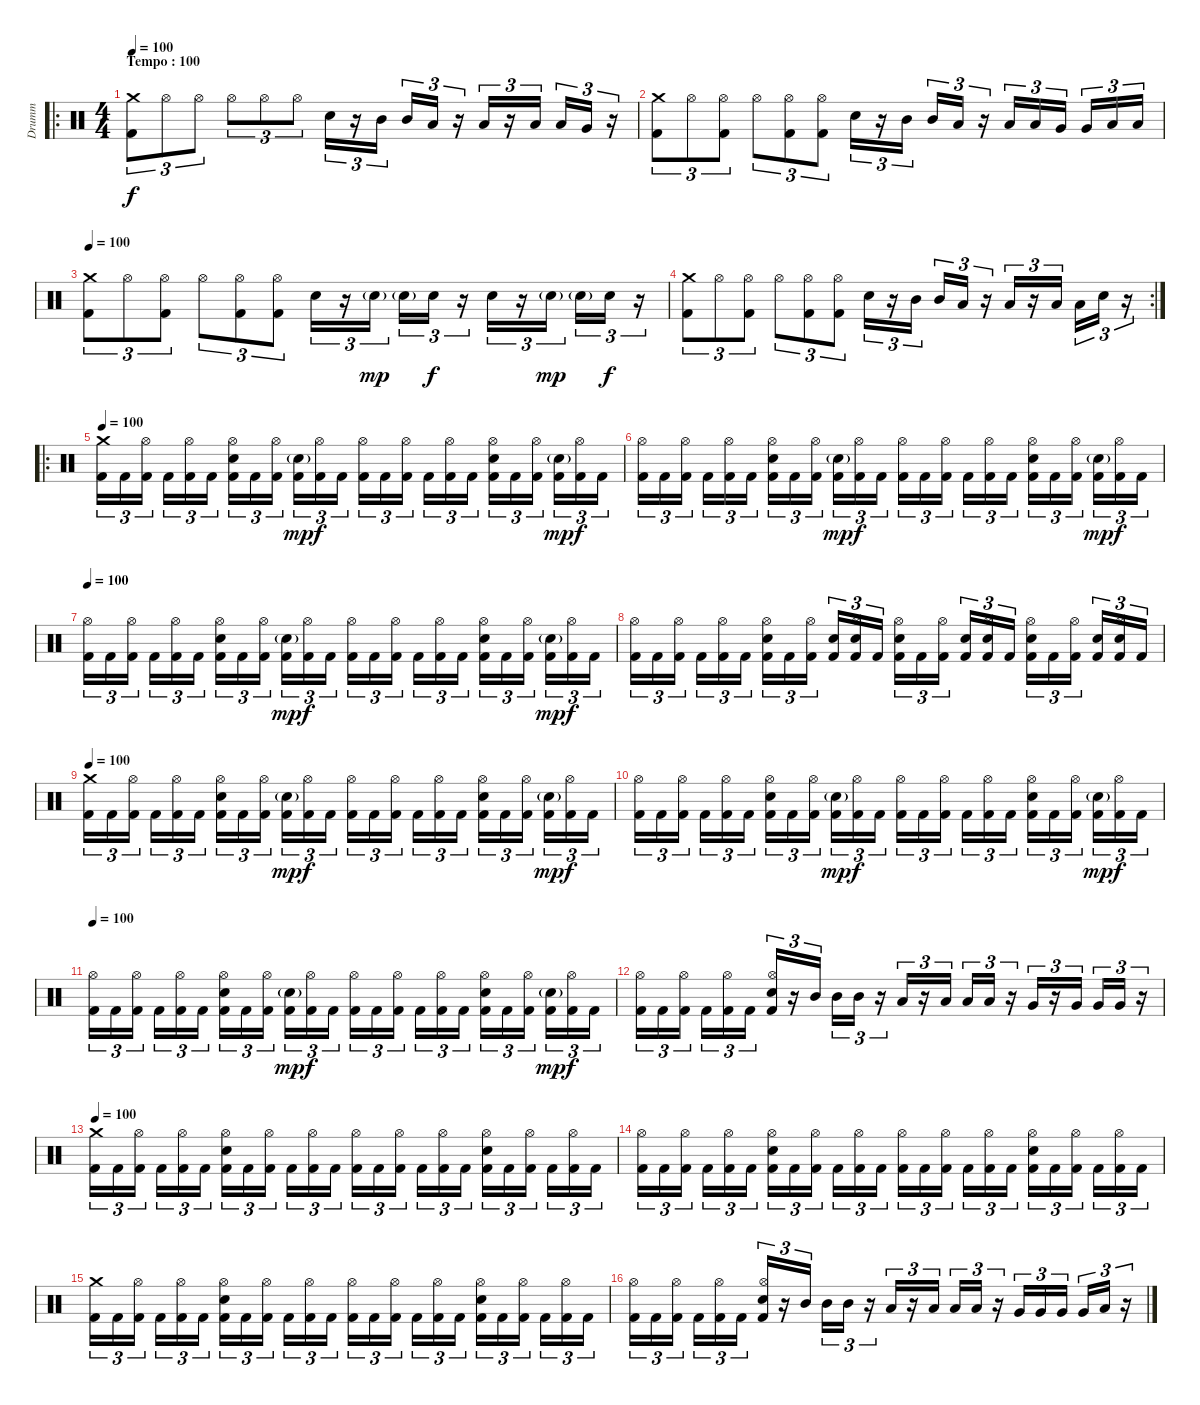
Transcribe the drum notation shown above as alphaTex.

\track ("Drumm" "Drumm") {instrument percussion}
\staff {score}
\articulation defaults
\ro
\ts (4 4)
\section ("" "Tempo : 100")
\tempo 100
\clef neutral
\ks c
("Kick (hit) 2" "Crash medium (hit)").8{tu (3 2) dy f} "Hi-Hat (open)".8{tu (3 2)} "Hi-Hat (open)".8{tu (3 2)} "Hi-Hat (open)".8{tu (3 2)} "Hi-Hat (open)".8{tu (3 2)} "Hi-Hat (open)".8{tu (3 2)} "Electric Snare (hit)".16{tu (3 2)} r.16{tu (3 2)} "Mid Tom (hit)".16{tu (3 2)} "Mid Tom (hit)".16{tu (3 2)} "Low Tom (hit)".16{tu (3 2)} r.16{tu (3 2)} "Low Tom (hit)".16{tu (3 2)} r.16{tu (3 2)} "Low Tom (hit)".16{tu (3 2)} "Low Tom (hit)".16{tu (3 2)} "Very Low Tom (hit)".16{tu (3 2)} r.16{tu (3 2)} |
("Kick (hit) 2" "Crash medium (hit)").8{tu (3 2)} "Hi-Hat (open)".8{tu (3 2)} ("Kick (hit) 2" "Hi-Hat (open)").8{tu (3 2)} "Hi-Hat (open)".8{tu (3 2)} ("Kick (hit) 2" "Hi-Hat (open)").8{tu (3 2)} ("Kick (hit) 2" "Hi-Hat (open)").8{tu (3 2)} "Electric Snare (hit)".16{tu (3 2)} r.16{tu (3 2)} "Mid Tom (hit)".16{tu (3 2)} "Mid Tom (hit)".16{tu (3 2)} "Low Tom (hit)".16{tu (3 2)} r.16{tu (3 2)} "Low Tom (hit)".16{tu (3 2)} "Low Tom (hit)".16{tu (3 2)} "Very Low Tom (hit)".16{tu (3 2)} "Very Low Tom (hit)".16{tu (3 2)} "Low Floor Tom (hit)".16{tu (3 2)} "Low Floor Tom (hit)".16{tu (3 2)} |
\tempo 100
("Kick (hit) 2" "Crash medium (hit)").8{tu (3 2)} "Hi-Hat (open)".8{tu (3 2)} ("Kick (hit) 2" "Hi-Hat (open)").8{tu (3 2)} "Hi-Hat (open)".8{tu (3 2)} ("Kick (hit) 2" "Hi-Hat (open)").8{tu (3 2)} ("Kick (hit) 2" "Hi-Hat (open)").8{tu (3 2)} "Electric Snare (hit)".16{tu (3 2)} r.16{tu (3 2)} "Electric Snare (hit)"{g}.16{tu (3 2) dy mp} "Electric Snare (hit)"{g}.16{tu (3 2)} "Electric Snare (hit)".16{tu (3 2) dy f} r.16{tu (3 2)} "Electric Snare (hit)".16{tu (3 2)} r.16{tu (3 2)} "Electric Snare (hit)"{g}.16{tu (3 2) dy mp} "Electric Snare (hit)"{g}.16{tu (3 2)} "Electric Snare (hit)".16{tu (3 2) dy f} r.16{tu (3 2)} |
\rc 2
("Kick (hit) 2" "Crash medium (hit)").8{tu (3 2)} "Hi-Hat (open)".8{tu (3 2)} ("Kick (hit) 2" "Hi-Hat (open)").8{tu (3 2)} "Hi-Hat (open)".8{tu (3 2)} ("Kick (hit) 2" "Hi-Hat (open)").8{tu (3 2)} ("Kick (hit) 2" "Hi-Hat (open)").8{tu (3 2)} "Electric Snare (hit)".16{tu (3 2)} r.16{tu (3 2)} "Mid Tom (hit)".16{tu (3 2)} "Mid Tom (hit)".16{tu (3 2)} "Low Tom (hit)".16{tu (3 2)} r.16{tu (3 2)} "Low Tom (hit)".16{tu (3 2)} r.16{tu (3 2)} "Low Tom (hit)".16{tu (3 2)} "Low Tom (hit)".16{tu (3 2)} "Electric Snare (hit)".16{tu (3 2)} r.16{tu (3 2)} |
\ro
\tempo 100
("Kick (hit) 2" "Crash medium (hit)").16{tu (3 2)} "Kick (hit) 2".16{tu (3 2)} ("Kick (hit) 2" "Hi-Hat (open)").16{tu (3 2)} "Kick (hit) 2".16{tu (3 2)} ("Kick (hit) 2" "Hi-Hat (open)").16{tu (3 2)} "Kick (hit) 2".16{tu (3 2)} ("Kick (hit) 2" "Hi-Hat (open)" "Electric Snare (hit)").16{tu (3 2)} "Kick (hit) 2".16{tu (3 2)} ("Kick (hit) 2" "Hi-Hat (open)").16{tu (3 2)} ("Kick (hit) 2" "Electric Snare (hit)"{g}).16{tu (3 2) dy mp} ("Kick (hit) 2" "Hi-Hat (open)").16{tu (3 2) dy f} "Kick (hit) 2".16{tu (3 2)} ("Kick (hit) 2" "Hi-Hat (open)").16{tu (3 2)} "Kick (hit) 2".16{tu (3 2)} ("Kick (hit) 2" "Hi-Hat (open)").16{tu (3 2)} "Kick (hit) 2".16{tu (3 2)} ("Kick (hit) 2" "Hi-Hat (open)").16{tu (3 2)} "Kick (hit) 2".16{tu (3 2)} ("Kick (hit) 2" "Hi-Hat (open)" "Electric Snare (hit)").16{tu (3 2)} "Kick (hit) 2".16{tu (3 2)} ("Kick (hit) 2" "Hi-Hat (open)").16{tu (3 2)} ("Kick (hit) 2" "Electric Snare (hit)"{g}).16{tu (3 2) dy mp} ("Kick (hit) 2" "Hi-Hat (open)").16{tu (3 2) dy f} "Kick (hit) 2".16{tu (3 2)} |
("Kick (hit) 2" "Hi-Hat (open)").16{tu (3 2)} "Kick (hit) 2".16{tu (3 2)} ("Kick (hit) 2" "Hi-Hat (open)").16{tu (3 2)} "Kick (hit) 2".16{tu (3 2)} ("Kick (hit) 2" "Hi-Hat (open)").16{tu (3 2)} "Kick (hit) 2".16{tu (3 2)} ("Kick (hit) 2" "Hi-Hat (open)" "Electric Snare (hit)").16{tu (3 2)} "Kick (hit) 2".16{tu (3 2)} ("Kick (hit) 2" "Hi-Hat (open)").16{tu (3 2)} ("Kick (hit) 2" "Electric Snare (hit)"{g}).16{tu (3 2) dy mp} ("Kick (hit) 2" "Hi-Hat (open)").16{tu (3 2) dy f} "Kick (hit) 2".16{tu (3 2)} ("Kick (hit) 2" "Hi-Hat (open)").16{tu (3 2)} "Kick (hit) 2".16{tu (3 2)} ("Kick (hit) 2" "Hi-Hat (open)").16{tu (3 2)} "Kick (hit) 2".16{tu (3 2)} ("Kick (hit) 2" "Hi-Hat (open)").16{tu (3 2)} "Kick (hit) 2".16{tu (3 2)} ("Kick (hit) 2" "Hi-Hat (open)" "Electric Snare (hit)").16{tu (3 2)} "Kick (hit) 2".16{tu (3 2)} ("Kick (hit) 2" "Hi-Hat (open)").16{tu (3 2)} ("Kick (hit) 2" "Electric Snare (hit)"{g}).16{tu (3 2) dy mp} ("Kick (hit) 2" "Hi-Hat (open)").16{tu (3 2) dy f} "Kick (hit) 2".16{tu (3 2)} |
\tempo 100
("Kick (hit) 2" "Hi-Hat (open)").16{tu (3 2)} "Kick (hit) 2".16{tu (3 2)} ("Kick (hit) 2" "Hi-Hat (open)").16{tu (3 2)} "Kick (hit) 2".16{tu (3 2)} ("Kick (hit) 2" "Hi-Hat (open)").16{tu (3 2)} "Kick (hit) 2".16{tu (3 2)} ("Kick (hit) 2" "Hi-Hat (open)" "Electric Snare (hit)").16{tu (3 2)} "Kick (hit) 2".16{tu (3 2)} ("Kick (hit) 2" "Hi-Hat (open)").16{tu (3 2)} ("Kick (hit) 2" "Electric Snare (hit)"{g}).16{tu (3 2) dy mp} ("Kick (hit) 2" "Hi-Hat (open)").16{tu (3 2) dy f} "Kick (hit) 2".16{tu (3 2)} ("Kick (hit) 2" "Hi-Hat (open)").16{tu (3 2)} "Kick (hit) 2".16{tu (3 2)} ("Kick (hit) 2" "Hi-Hat (open)").16{tu (3 2)} "Kick (hit) 2".16{tu (3 2)} ("Kick (hit) 2" "Hi-Hat (open)").16{tu (3 2)} "Kick (hit) 2".16{tu (3 2)} ("Kick (hit) 2" "Hi-Hat (open)" "Electric Snare (hit)").16{tu (3 2)} "Kick (hit) 2".16{tu (3 2)} ("Kick (hit) 2" "Hi-Hat (open)").16{tu (3 2)} ("Kick (hit) 2" "Electric Snare (hit)"{g}).16{tu (3 2) dy mp} ("Kick (hit) 2" "Hi-Hat (open)").16{tu (3 2) dy f} "Kick (hit) 2".16{tu (3 2)} |
("Kick (hit) 2" "Hi-Hat (open)").16{tu (3 2)} "Kick (hit) 2".16{tu (3 2)} ("Kick (hit) 2" "Hi-Hat (open)").16{tu (3 2)} "Kick (hit) 2".16{tu (3 2)} ("Kick (hit) 2" "Hi-Hat (open)").16{tu (3 2)} "Kick (hit) 2".16{tu (3 2)} ("Kick (hit) 2" "Hi-Hat (open)" "Electric Snare (hit)").16{tu (3 2)} "Kick (hit) 2".16{tu (3 2)} ("Kick (hit) 2" "Hi-Hat (open)").16{tu (3 2)} ("Kick (hit) 2" "Electric Snare (hit)").16{tu (3 2)} ("Kick (hit) 2" "Hi-Hat (open)" "Electric Snare (hit)").16{tu (3 2)} "Kick (hit) 2".16{tu (3 2)} ("Kick (hit) 2" "Hi-Hat (open)" "Electric Snare (hit)").16{tu (3 2)} "Kick (hit) 2".16{tu (3 2)} ("Kick (hit) 2" "Hi-Hat (open)").16{tu (3 2)} ("Kick (hit) 2" "Electric Snare (hit)").16{tu (3 2)} ("Kick (hit) 2" "Hi-Hat (open)" "Electric Snare (hit)").16{tu (3 2)} "Kick (hit) 2".16{tu (3 2)} ("Kick (hit) 2" "Hi-Hat (open)" "Electric Snare (hit)").16{tu (3 2)} "Kick (hit) 2".16{tu (3 2)} ("Kick (hit) 2" "Hi-Hat (open)").16{tu (3 2)} ("Kick (hit) 2" "Electric Snare (hit)").16{tu (3 2)} ("Kick (hit) 2" "Hi-Hat (open)" "Electric Snare (hit)").16{tu (3 2)} "Kick (hit) 2".16{tu (3 2)} |
\tempo 100
("Kick (hit) 2" "Crash medium (hit)").16{tu (3 2)} "Kick (hit) 2".16{tu (3 2)} ("Kick (hit) 2" "Hi-Hat (open)").16{tu (3 2)} "Kick (hit) 2".16{tu (3 2)} ("Kick (hit) 2" "Hi-Hat (open)").16{tu (3 2)} "Kick (hit) 2".16{tu (3 2)} ("Kick (hit) 2" "Hi-Hat (open)" "Electric Snare (hit)").16{tu (3 2)} "Kick (hit) 2".16{tu (3 2)} ("Kick (hit) 2" "Hi-Hat (open)").16{tu (3 2)} ("Kick (hit) 2" "Electric Snare (hit)"{g}).16{tu (3 2) dy mp} ("Kick (hit) 2" "Hi-Hat (open)").16{tu (3 2) dy f} "Kick (hit) 2".16{tu (3 2)} ("Kick (hit) 2" "Hi-Hat (open)").16{tu (3 2)} "Kick (hit) 2".16{tu (3 2)} ("Kick (hit) 2" "Hi-Hat (open)").16{tu (3 2)} "Kick (hit) 2".16{tu (3 2)} ("Kick (hit) 2" "Hi-Hat (open)").16{tu (3 2)} "Kick (hit) 2".16{tu (3 2)} ("Kick (hit) 2" "Hi-Hat (open)" "Electric Snare (hit)").16{tu (3 2)} "Kick (hit) 2".16{tu (3 2)} ("Kick (hit) 2" "Hi-Hat (open)").16{tu (3 2)} ("Kick (hit) 2" "Electric Snare (hit)"{g}).16{tu (3 2) dy mp} ("Kick (hit) 2" "Hi-Hat (open)").16{tu (3 2) dy f} "Kick (hit) 2".16{tu (3 2)} |
("Kick (hit) 2" "Hi-Hat (open)").16{tu (3 2)} "Kick (hit) 2".16{tu (3 2)} ("Kick (hit) 2" "Hi-Hat (open)").16{tu (3 2)} "Kick (hit) 2".16{tu (3 2)} ("Kick (hit) 2" "Hi-Hat (open)").16{tu (3 2)} "Kick (hit) 2".16{tu (3 2)} ("Kick (hit) 2" "Hi-Hat (open)" "Electric Snare (hit)").16{tu (3 2)} "Kick (hit) 2".16{tu (3 2)} ("Kick (hit) 2" "Hi-Hat (open)").16{tu (3 2)} ("Kick (hit) 2" "Electric Snare (hit)"{g}).16{tu (3 2) dy mp} ("Kick (hit) 2" "Hi-Hat (open)").16{tu (3 2) dy f} "Kick (hit) 2".16{tu (3 2)} ("Kick (hit) 2" "Hi-Hat (open)").16{tu (3 2)} "Kick (hit) 2".16{tu (3 2)} ("Kick (hit) 2" "Hi-Hat (open)").16{tu (3 2)} "Kick (hit) 2".16{tu (3 2)} ("Kick (hit) 2" "Hi-Hat (open)").16{tu (3 2)} "Kick (hit) 2".16{tu (3 2)} ("Kick (hit) 2" "Hi-Hat (open)" "Electric Snare (hit)").16{tu (3 2)} "Kick (hit) 2".16{tu (3 2)} ("Kick (hit) 2" "Hi-Hat (open)").16{tu (3 2)} ("Kick (hit) 2" "Electric Snare (hit)"{g}).16{tu (3 2) dy mp} ("Kick (hit) 2" "Hi-Hat (open)").16{tu (3 2) dy f} "Kick (hit) 2".16{tu (3 2)} |
\tempo 100
("Kick (hit) 2" "Hi-Hat (open)").16{tu (3 2)} "Kick (hit) 2".16{tu (3 2)} ("Kick (hit) 2" "Hi-Hat (open)").16{tu (3 2)} "Kick (hit) 2".16{tu (3 2)} ("Kick (hit) 2" "Hi-Hat (open)").16{tu (3 2)} "Kick (hit) 2".16{tu (3 2)} ("Kick (hit) 2" "Hi-Hat (open)" "Electric Snare (hit)").16{tu (3 2)} "Kick (hit) 2".16{tu (3 2)} ("Kick (hit) 2" "Hi-Hat (open)").16{tu (3 2)} ("Kick (hit) 2" "Electric Snare (hit)"{g}).16{tu (3 2) dy mp} ("Kick (hit) 2" "Hi-Hat (open)").16{tu (3 2) dy f} "Kick (hit) 2".16{tu (3 2)} ("Kick (hit) 2" "Hi-Hat (open)").16{tu (3 2)} "Kick (hit) 2".16{tu (3 2)} ("Kick (hit) 2" "Hi-Hat (open)").16{tu (3 2)} "Kick (hit) 2".16{tu (3 2)} ("Kick (hit) 2" "Hi-Hat (open)").16{tu (3 2)} "Kick (hit) 2".16{tu (3 2)} ("Kick (hit) 2" "Hi-Hat (open)" "Electric Snare (hit)").16{tu (3 2)} "Kick (hit) 2".16{tu (3 2)} ("Kick (hit) 2" "Hi-Hat (open)").16{tu (3 2)} ("Kick (hit) 2" "Electric Snare (hit)"{g}).16{tu (3 2) dy mp} ("Kick (hit) 2" "Hi-Hat (open)").16{tu (3 2) dy f} "Kick (hit) 2".16{tu (3 2)} |
("Kick (hit) 2" "Hi-Hat (open)").16{tu (3 2)} "Kick (hit) 2".16{tu (3 2)} ("Kick (hit) 2" "Hi-Hat (open)").16{tu (3 2)} "Kick (hit) 2".16{tu (3 2)} ("Kick (hit) 2" "Hi-Hat (open)").16{tu (3 2)} "Kick (hit) 2".16{tu (3 2)} ("Kick (hit) 2" "Hi-Hat (open)" "Electric Snare (hit)").16{tu (3 2)} r.16{tu (3 2)} "Mid Tom (hit)".16{tu (3 2)} "Mid Tom (hit)".16{tu (3 2)} "Mid Tom (hit)".16{tu (3 2)} r.16{tu (3 2)} "Low Tom (hit)".16{tu (3 2)} r.16{tu (3 2)} "Low Tom (hit)".16{tu (3 2)} "Low Tom (hit)".16{tu (3 2)} "Low Tom (hit)".16{tu (3 2)} r.16{tu (3 2)} "Very Low Tom (hit)".16{tu (3 2)} r.16{tu (3 2)} "Very Low Tom (hit)".16{tu (3 2)} "Very Low Tom (hit)".16{tu (3 2)} "Very Low Tom (hit)".16{tu (3 2)} r.16{tu (3 2)} |
\tempo 100
("Kick (hit) 2" "Crash medium (hit)").16{tu (3 2)} "Kick (hit) 2".16{tu (3 2)} ("Kick (hit) 2" "Hi-Hat (open)").16{tu (3 2)} "Kick (hit) 2".16{tu (3 2)} ("Kick (hit) 2" "Hi-Hat (open)").16{tu (3 2)} "Kick (hit) 2".16{tu (3 2)} ("Kick (hit) 2" "Hi-Hat (open)" "Electric Snare (hit)").16{tu (3 2)} "Kick (hit) 2".16{tu (3 2)} ("Kick (hit) 2" "Hi-Hat (open)").16{tu (3 2)} "Kick (hit) 2".16{tu (3 2)} ("Kick (hit) 2" "Hi-Hat (open)").16{tu (3 2)} "Kick (hit) 2".16{tu (3 2)} ("Kick (hit) 2" "Hi-Hat (open)").16{tu (3 2)} "Kick (hit) 2".16{tu (3 2)} ("Kick (hit) 2" "Hi-Hat (open)").16{tu (3 2)} "Kick (hit) 2".16{tu (3 2)} ("Kick (hit) 2" "Hi-Hat (open)").16{tu (3 2)} "Kick (hit) 2".16{tu (3 2)} ("Kick (hit) 2" "Hi-Hat (open)" "Electric Snare (hit)").16{tu (3 2)} "Kick (hit) 2".16{tu (3 2)} ("Kick (hit) 2" "Hi-Hat (open)").16{tu (3 2)} "Kick (hit) 2".16{tu (3 2)} ("Kick (hit) 2" "Hi-Hat (open)").16{tu (3 2)} "Kick (hit) 2".16{tu (3 2)} |
("Kick (hit) 2" "Hi-Hat (open)").16{tu (3 2)} "Kick (hit) 2".16{tu (3 2)} ("Kick (hit) 2" "Hi-Hat (open)").16{tu (3 2)} "Kick (hit) 2".16{tu (3 2)} ("Kick (hit) 2" "Hi-Hat (open)").16{tu (3 2)} "Kick (hit) 2".16{tu (3 2)} ("Kick (hit) 2" "Hi-Hat (open)" "Electric Snare (hit)").16{tu (3 2)} "Kick (hit) 2".16{tu (3 2)} ("Kick (hit) 2" "Hi-Hat (open)").16{tu (3 2)} "Kick (hit) 2".16{tu (3 2)} ("Kick (hit) 2" "Hi-Hat (open)").16{tu (3 2)} "Kick (hit) 2".16{tu (3 2)} ("Kick (hit) 2" "Hi-Hat (open)").16{tu (3 2)} "Kick (hit) 2".16{tu (3 2)} ("Kick (hit) 2" "Hi-Hat (open)").16{tu (3 2)} "Kick (hit) 2".16{tu (3 2)} ("Kick (hit) 2" "Hi-Hat (open)").16{tu (3 2)} "Kick (hit) 2".16{tu (3 2)} ("Kick (hit) 2" "Hi-Hat (open)" "Electric Snare (hit)").16{tu (3 2)} "Kick (hit) 2".16{tu (3 2)} ("Kick (hit) 2" "Hi-Hat (open)").16{tu (3 2)} "Kick (hit) 2".16{tu (3 2)} ("Kick (hit) 2" "Hi-Hat (open)").16{tu (3 2)} "Kick (hit) 2".16{tu (3 2)} |
("Kick (hit) 2" "Crash medium (hit)").16{tu (3 2)} "Kick (hit) 2".16{tu (3 2)} ("Kick (hit) 2" "Hi-Hat (open)").16{tu (3 2)} "Kick (hit) 2".16{tu (3 2)} ("Kick (hit) 2" "Hi-Hat (open)").16{tu (3 2)} "Kick (hit) 2".16{tu (3 2)} ("Kick (hit) 2" "Hi-Hat (open)" "Electric Snare (hit)").16{tu (3 2)} "Kick (hit) 2".16{tu (3 2)} ("Kick (hit) 2" "Hi-Hat (open)").16{tu (3 2)} "Kick (hit) 2".16{tu (3 2)} ("Kick (hit) 2" "Hi-Hat (open)").16{tu (3 2)} "Kick (hit) 2".16{tu (3 2)} ("Kick (hit) 2" "Hi-Hat (open)").16{tu (3 2)} "Kick (hit) 2".16{tu (3 2)} ("Kick (hit) 2" "Hi-Hat (open)").16{tu (3 2)} "Kick (hit) 2".16{tu (3 2)} ("Kick (hit) 2" "Hi-Hat (open)").16{tu (3 2)} "Kick (hit) 2".16{tu (3 2)} ("Kick (hit) 2" "Hi-Hat (open)" "Electric Snare (hit)").16{tu (3 2)} "Kick (hit) 2".16{tu (3 2)} ("Kick (hit) 2" "Hi-Hat (open)").16{tu (3 2)} "Kick (hit) 2".16{tu (3 2)} ("Kick (hit) 2" "Hi-Hat (open)").16{tu (3 2)} "Kick (hit) 2".16{tu (3 2)} |
("Kick (hit) 2" "Hi-Hat (open)").16{tu (3 2)} "Kick (hit) 2".16{tu (3 2)} ("Kick (hit) 2" "Hi-Hat (open)").16{tu (3 2)} "Kick (hit) 2".16{tu (3 2)} ("Kick (hit) 2" "Hi-Hat (open)").16{tu (3 2)} "Kick (hit) 2".16{tu (3 2)} ("Kick (hit) 2" "Hi-Hat (open)" "Electric Snare (hit)").16{tu (3 2)} r.16{tu (3 2)} "Mid Tom (hit)".16{tu (3 2)} "Mid Tom (hit)".16{tu (3 2)} "Mid Tom (hit)".16{tu (3 2)} r.16{tu (3 2)} "Low Tom (hit)".16{tu (3 2)} r.16{tu (3 2)} "Low Tom (hit)".16{tu (3 2)} "Low Tom (hit)".16{tu (3 2)} "Low Tom (hit)".16{tu (3 2)} r.16{tu (3 2)} "Very Low Tom (hit)".16{tu (3 2)} "Very Low Tom (hit)".16{tu (3 2)} "Very Low Tom (hit)".16{tu (3 2)} "Very Low Tom (hit)".16{tu (3 2)} "Low Floor Tom (hit)".16{tu (3 2)} r.16{tu (3 2)}
